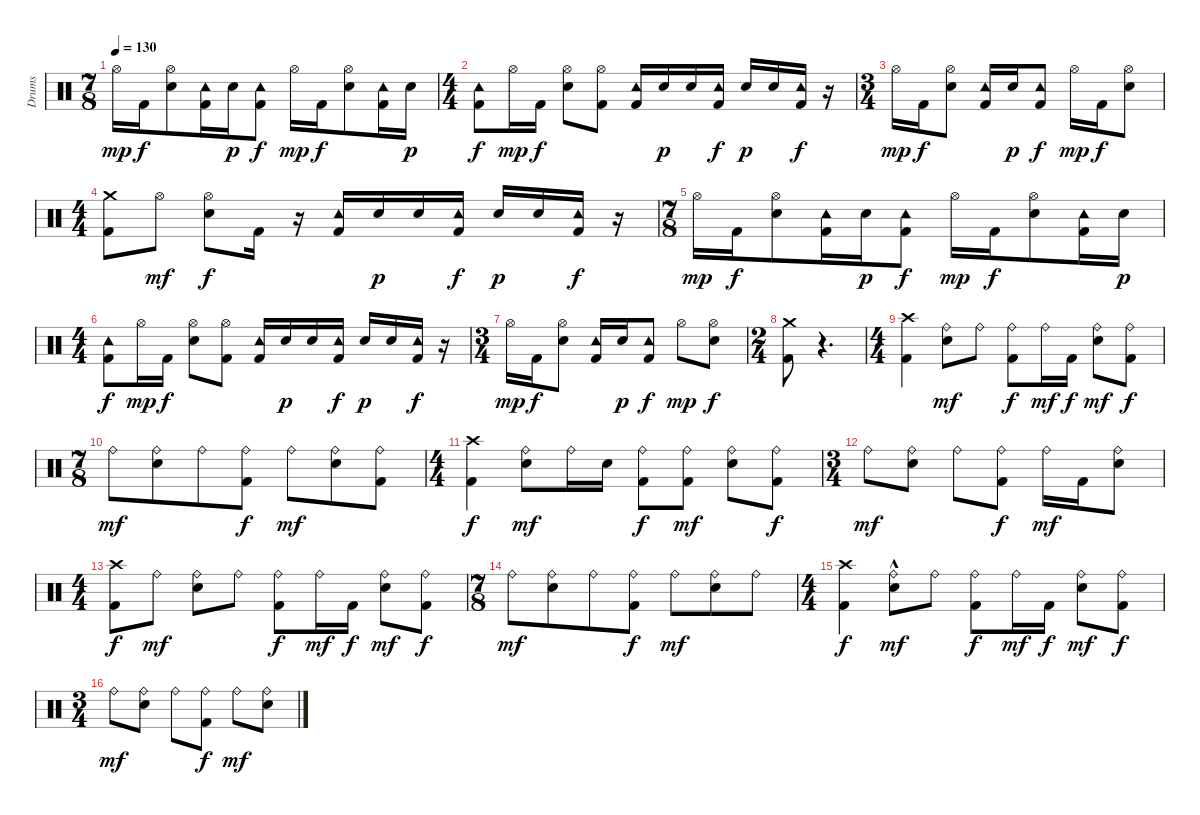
\track ("Drums" "Drums") {instrument percussion}
\staff {score}
\articulation defaults
\ts (7 8)
\tempo 130
\clef neutral
\ks c "Hi-Hat (open)".16{dy mp} "Kick (hit) 2".16{dy f}
("Electric Snare (hit)" "Hi-Hat (open)").8 ("Kick (hit) 2" "Tambourine (hit)").16 "Electric Snare (hit)".16{dy p} ("Kick (hit) 2" "Tambourine (hit)").8{dy f} "Hi-Hat (open)".16{dy mp} "Kick (hit) 2".16{dy f} ("Electric Snare (hit)" "Hi-Hat (open)").8 ("Kick (hit) 2" "Tambourine (hit)").16 "Electric Snare (hit)".16{dy p} |
\ts (4 4)
("Kick (hit) 2" "Tambourine (hit)").8{dy f} "Hi-Hat (open)".16{dy mp} "Kick (hit) 2".16{dy f} ("Electric Snare (hit)" "Hi-Hat (open)").8 ("Kick (hit) 2" "Hi-Hat (open)").8 ("Kick (hit) 2" "Tambourine (hit)").16 "Electric Snare (hit)".16{dy p} "Electric Snare (hit)".16 ("Kick (hit) 2" "Tambourine (hit)").16{dy f} "Electric Snare (hit)".16{dy p} "Electric Snare (hit)".16 ("Kick (hit) 2" "Tambourine (hit)").16{dy f} r.16 |
\ts (3 4)
"Hi-Hat (open)".16{dy mp} "Kick (hit) 2".16{dy f} ("Electric Snare (hit)" "Hi-Hat (open)").8 ("Kick (hit) 2" "Tambourine (hit)").16 "Electric Snare (hit)".16{dy p} ("Kick (hit) 2" "Tambourine (hit)").8{dy f} "Hi-Hat (open)".16{dy mp} "Kick (hit) 2".16{dy f} ("Electric Snare (hit)" "Hi-Hat (open)").8 |
\ts (4 4)
("Crash medium (hit)" "Kick (hit) 2").8 "Hi-Hat (open)".8{dy mf} ("Electric Snare (hit)" "Hi-Hat (open)").8{dy f} "Kick (hit) 2".16 r.16 ("Kick (hit) 2" "Tambourine (hit)").16 "Electric Snare (hit)".16{dy p} "Electric Snare (hit)".16 ("Kick (hit) 2" "Tambourine (hit)").16{dy f} "Electric Snare (hit)".16{dy p} "Electric Snare (hit)".16 ("Kick (hit) 2" "Tambourine (hit)").16{dy f} r.16 |
\ts (7 8)
"Hi-Hat (open)".16{dy mp} "Kick (hit) 2".16{dy f} ("Electric Snare (hit)" "Hi-Hat (open)").8 ("Kick (hit) 2" "Tambourine (hit)").16 "Electric Snare (hit)".16{dy p} ("Kick (hit) 2" "Tambourine (hit)").8{dy f} "Hi-Hat (open)".16{dy mp} "Kick (hit) 2".16{dy f} ("Electric Snare (hit)" "Hi-Hat (open)").8 ("Kick (hit) 2" "Tambourine (hit)").16 "Electric Snare (hit)".16{dy p} |
\ts (4 4)
("Kick (hit) 2" "Tambourine (hit)").8{dy f} "Hi-Hat (open)".16{dy mp} "Kick (hit) 2".16{dy f} ("Electric Snare (hit)" "Hi-Hat (open)").8 ("Kick (hit) 2" "Hi-Hat (open)").8 ("Kick (hit) 2" "Tambourine (hit)").16 "Electric Snare (hit)".16{dy p} "Electric Snare (hit)".16 ("Kick (hit) 2" "Tambourine (hit)").16{dy f} "Electric Snare (hit)".16{dy p} "Electric Snare (hit)".16 ("Kick (hit) 2" "Tambourine (hit)").16{dy f} r.16 |
\ts (3 4)
"Hi-Hat (open)".16{dy mp} "Kick (hit) 2".16{dy f} ("Electric Snare (hit)" "Hi-Hat (open)").8 ("Kick (hit) 2" "Tambourine (hit)").16 "Electric Snare (hit)".16{dy p} ("Kick (hit) 2" "Tambourine (hit)").8{dy f} "Hi-Hat (open)".8{dy mp} ("Electric Snare (hit)" "Hi-Hat (open)").8{dy f} |
\ts (2 4)
("Kick (hit) 2" "Crash medium (hit)").8 r.4{d} |
\ts (4 4)
("Kick (hit) 2" "Crash high (hit)").4{volume 11} ("Electric Snare (hit)" "Ride (bell)").8{dy mf} "Ride (bell)".8 ("Kick (hit) 2" "Ride (bell)").8{dy f} "Ride (bell)".16{dy mf} "Kick (hit) 2".16{dy f} ("Electric Snare (hit)" "Ride (bell)").8{dy mf} ("Kick (hit) 2" "Ride (bell)").8{dy f} |
\ts (7 8)
"Ride (bell)".8{dy mf} ("Electric Snare (hit)" "Ride (bell)").8 "Ride (bell)".8 ("Kick (hit) 2" "Ride (bell)").8{dy f} "Ride (bell)".8{dy mf} ("Electric Snare (hit)" "Ride (bell)").8 ("Kick (hit) 2" "Ride (bell)").8 |
\ts (4 4)
("Crash high (hit)" "Kick (hit) 2").4{dy f} ("Ride (bell)" "Electric Snare (hit)").8{dy mf} "Ride (bell)".16 "Electric Snare (hit)".16 ("Ride (bell)" "Kick (hit) 2").8{dy f} ("Ride (bell)" "Kick (hit) 2").8{dy mf} ("Electric Snare (hit)" "Ride (bell)").8 ("Kick (hit) 2" "Ride (bell)").8{dy f} |
\ts (3 4)
"Ride (bell)".8{dy mf} ("Electric Snare (hit)" "Ride (bell)").8 "Ride (bell)".8 ("Kick (hit) 2" "Ride (bell)").8{dy f} "Ride (bell)".16{dy mf} "Kick (hit) 2".16 ("Electric Snare (hit)" "Ride (bell)").8 |
\ts (4 4)
("Crash high (hit)" "Kick (hit) 2").8{dy f} "Ride (bell)".8{dy mf} ("Electric Snare (hit)" "Ride (bell)").8 "Ride (bell)".8 ("Kick (hit) 2" "Ride (bell)").8{dy f} "Ride (bell)".16{dy mf} "Kick (hit) 2".16{dy f} ("Electric Snare (hit)" "Ride (bell)").8{dy mf} ("Kick (hit) 2" "Ride (bell)").8{dy f} |
\ts (7 8)
"Ride (bell)".8{dy mf} ("Electric Snare (hit)" "Ride (bell)").8 "Ride (bell)".8 ("Kick (hit) 2" "Ride (bell)").8{dy f} "Ride (bell)".8{dy mf} ("Electric Snare (hit)" "Ride (bell)").8 "Ride (bell)".8 |
\ts (4 4)
("Crash high (hit)" "Kick (hit) 2").4{dy f} ("Ride (bell)" "Electric Snare (hit)"{hac}).8{dy mf} "Ride (bell)".8 ("Ride (bell)" "Kick (hit) 2").8{dy f} "Ride (bell)".16{dy mf} "Kick (hit) 2".16{dy f} ("Electric Snare (hit)" "Ride (bell)").8{dy mf} ("Kick (hit) 2" "Ride (bell)").8{dy f} |
\ts (3 4)
"Ride (bell)".8{dy mf} ("Electric Snare (hit)" "Ride (bell)").8 "Ride (bell)".8 ("Kick (hit) 2" "Ride (bell)").8{dy f} "Ride (bell)".8{dy mf} ("Electric Snare (hit)" "Ride (bell)").8
